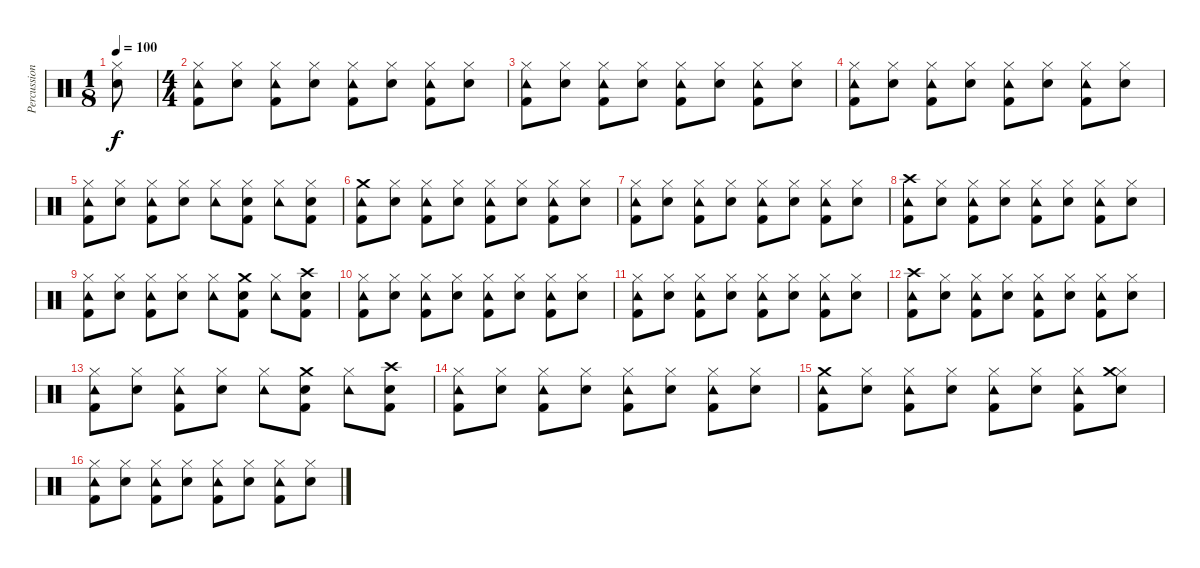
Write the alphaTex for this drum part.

\track ("Percussion" "Percussion") {instrument percussion}
\staff {score}
\articulation defaults
\ts (1 8)
\tempo 100
\clef neutral
\ks c
("Hi-Hat (closed)" "Electric Snare (hit)").8{dy f volume 16} |
\ts (4 4)
("Hi-Hat (closed)" "Tambourine (hit)" "Kick (hit) 2").8{volume 11} ("Hi-Hat (closed)" "Electric Snare (hit)").8 ("Hi-Hat (closed)" "Tambourine (hit)" "Kick (hit) 2").8 ("Hi-Hat (closed)" "Electric Snare (hit)").8 ("Hi-Hat (closed)" "Tambourine (hit)" "Kick (hit) 2").8 ("Hi-Hat (closed)" "Electric Snare (hit)").8 ("Hi-Hat (closed)" "Tambourine (hit)" "Kick (hit) 2").8 ("Hi-Hat (closed)" "Electric Snare (hit)").8 |
("Hi-Hat (closed)" "Tambourine (hit)" "Kick (hit) 2").8 ("Hi-Hat (closed)" "Electric Snare (hit)").8 ("Hi-Hat (closed)" "Tambourine (hit)" "Kick (hit) 2").8 ("Hi-Hat (closed)" "Electric Snare (hit)").8 ("Hi-Hat (closed)" "Tambourine (hit)" "Kick (hit) 2").8 ("Hi-Hat (closed)" "Electric Snare (hit)").8 ("Hi-Hat (closed)" "Tambourine (hit)" "Kick (hit) 2").8 ("Hi-Hat (closed)" "Electric Snare (hit)").8 |
("Hi-Hat (closed)" "Tambourine (hit)" "Kick (hit) 2").8 ("Hi-Hat (closed)" "Electric Snare (hit)").8 ("Hi-Hat (closed)" "Tambourine (hit)" "Kick (hit) 2").8 ("Hi-Hat (closed)" "Electric Snare (hit)").8 ("Hi-Hat (closed)" "Tambourine (hit)" "Kick (hit) 2").8 ("Hi-Hat (closed)" "Electric Snare (hit)").8 ("Hi-Hat (closed)" "Tambourine (hit)" "Kick (hit) 2").8 ("Hi-Hat (closed)" "Electric Snare (hit)").8 |
("Hi-Hat (closed)" "Tambourine (hit)" "Kick (hit) 2").8 ("Hi-Hat (closed)" "Electric Snare (hit)").8 ("Hi-Hat (closed)" "Tambourine (hit)" "Kick (hit) 2").8 ("Hi-Hat (closed)" "Electric Snare (hit)").8 ("Hi-Hat (closed)" "Tambourine (hit)").8 ("Hi-Hat (closed)" "Electric Snare (hit)" "Kick (hit) 2").8 ("Hi-Hat (closed)" "Tambourine (hit)").8 ("Hi-Hat (closed)" "Electric Snare (hit)" "Kick (hit) 2").8 |
("Tambourine (hit)" "Crash medium (hit)" "Kick (hit) 2").8{volume 13} ("Hi-Hat (closed)" "Electric Snare (hit)").8 ("Hi-Hat (closed)" "Tambourine (hit)" "Kick (hit) 2").8 ("Hi-Hat (closed)" "Electric Snare (hit)").8 ("Hi-Hat (closed)" "Tambourine (hit)" "Kick (hit) 2").8 ("Hi-Hat (closed)" "Electric Snare (hit)").8 ("Hi-Hat (closed)" "Tambourine (hit)" "Kick (hit) 2").8 ("Hi-Hat (closed)" "Electric Snare (hit)").8 |
("Hi-Hat (closed)" "Tambourine (hit)" "Kick (hit) 2").8 ("Hi-Hat (closed)" "Electric Snare (hit)").8 ("Hi-Hat (closed)" "Tambourine (hit)" "Kick (hit) 2").8 ("Hi-Hat (closed)" "Electric Snare (hit)").8 ("Hi-Hat (closed)" "Tambourine (hit)" "Kick (hit) 2").8 ("Hi-Hat (closed)" "Electric Snare (hit)").8 ("Hi-Hat (closed)" "Tambourine (hit)" "Kick (hit) 2").8 ("Hi-Hat (closed)" "Electric Snare (hit)").8 |
("Tambourine (hit)" "Crash high (hit)" "Kick (hit) 2").8 ("Hi-Hat (closed)" "Electric Snare (hit)").8 ("Hi-Hat (closed)" "Tambourine (hit)" "Kick (hit) 2").8 ("Hi-Hat (closed)" "Electric Snare (hit)").8 ("Hi-Hat (closed)" "Tambourine (hit)" "Kick (hit) 2").8 ("Hi-Hat (closed)" "Electric Snare (hit)").8 ("Hi-Hat (closed)" "Tambourine (hit)" "Kick (hit) 2").8 ("Hi-Hat (closed)" "Electric Snare (hit)").8 |
("Hi-Hat (closed)" "Tambourine (hit)" "Kick (hit) 2").8 ("Hi-Hat (closed)" "Electric Snare (hit)").8 ("Hi-Hat (closed)" "Tambourine (hit)" "Kick (hit) 2").8 ("Hi-Hat (closed)" "Electric Snare (hit)").8 ("Hi-Hat (closed)" "Tambourine (hit)").8 ("Electric Snare (hit)" "Crash medium (hit)" "Kick (hit) 2").8 ("Hi-Hat (closed)" "Tambourine (hit)").8 ("Electric Snare (hit)" "Crash high (hit)" "Kick (hit) 2").8 |
("Hi-Hat (closed)" "Tambourine (hit)" "Kick (hit) 2").8 ("Hi-Hat (closed)" "Electric Snare (hit)").8 ("Hi-Hat (closed)" "Tambourine (hit)" "Kick (hit) 2").8 ("Hi-Hat (closed)" "Electric Snare (hit)").8 ("Hi-Hat (closed)" "Tambourine (hit)" "Kick (hit) 2").8 ("Hi-Hat (closed)" "Electric Snare (hit)").8 ("Hi-Hat (closed)" "Tambourine (hit)" "Kick (hit) 2").8 ("Hi-Hat (closed)" "Electric Snare (hit)").8 |
("Hi-Hat (closed)" "Tambourine (hit)" "Kick (hit) 2").8 ("Hi-Hat (closed)" "Electric Snare (hit)").8 ("Hi-Hat (closed)" "Tambourine (hit)" "Kick (hit) 2").8 ("Hi-Hat (closed)" "Electric Snare (hit)").8 ("Hi-Hat (closed)" "Tambourine (hit)" "Kick (hit) 2").8 ("Hi-Hat (closed)" "Electric Snare (hit)").8 ("Hi-Hat (closed)" "Tambourine (hit)" "Kick (hit) 2").8 ("Hi-Hat (closed)" "Electric Snare (hit)").8 |
("Tambourine (hit)" "Crash high (hit)" "Kick (hit) 2").8 ("Hi-Hat (closed)" "Electric Snare (hit)").8 ("Hi-Hat (closed)" "Tambourine (hit)" "Kick (hit) 2").8 ("Hi-Hat (closed)" "Electric Snare (hit)").8 ("Hi-Hat (closed)" "Tambourine (hit)" "Kick (hit) 2").8 ("Hi-Hat (closed)" "Electric Snare (hit)").8 ("Hi-Hat (closed)" "Tambourine (hit)" "Kick (hit) 2").8 ("Hi-Hat (closed)" "Electric Snare (hit)").8 |
("Hi-Hat (closed)" "Tambourine (hit)" "Kick (hit) 2").8 ("Hi-Hat (closed)" "Electric Snare (hit)").8 ("Hi-Hat (closed)" "Tambourine (hit)" "Kick (hit) 2").8 ("Hi-Hat (closed)" "Electric Snare (hit)").8 ("Hi-Hat (closed)" "Tambourine (hit)").8 ("Electric Snare (hit)" "Crash medium (hit)" "Kick (hit) 2").8 ("Hi-Hat (closed)" "Tambourine (hit)").8 ("Electric Snare (hit)" "Crash high (hit)" "Kick (hit) 2").8 |
("Hi-Hat (closed)" "Tambourine (hit)" "Kick (hit) 2").8 ("Hi-Hat (closed)" "Electric Snare (hit)").8 ("Hi-Hat (closed)" "Tambourine (hit)" "Kick (hit) 2").8 ("Hi-Hat (closed)" "Electric Snare (hit)").8 ("Hi-Hat (closed)" "Tambourine (hit)" "Kick (hit) 2").8 ("Hi-Hat (closed)" "Electric Snare (hit)").8 ("Hi-Hat (closed)" "Tambourine (hit)" "Kick (hit) 2").8 ("Hi-Hat (closed)" "Electric Snare (hit)").8 |
("Tambourine (hit)" "Crash medium (hit)" "Kick (hit) 2").8 ("Hi-Hat (closed)" "Electric Snare (hit)").8 ("Hi-Hat (closed)" "Tambourine (hit)" "Kick (hit) 2").8 ("Hi-Hat (closed)" "Electric Snare (hit)").8 ("Hi-Hat (closed)" "Tambourine (hit)" "Kick (hit) 2").8 ("Hi-Hat (closed)" "Electric Snare (hit)").8 ("Hi-Hat (closed)" "Tambourine (hit)" "Kick (hit) 2").8 ("Hi-Hat (closed)" "Electric Snare (hit)" "Crash medium (hit)").8 |
("Hi-Hat (closed)" "Tambourine (hit)" "Kick (hit) 2").8 ("Hi-Hat (closed)" "Electric Snare (hit)").8 ("Hi-Hat (closed)" "Tambourine (hit)" "Kick (hit) 2").8 ("Hi-Hat (closed)" "Electric Snare (hit)").8 ("Hi-Hat (closed)" "Tambourine (hit)" "Kick (hit) 2").8 ("Hi-Hat (closed)" "Electric Snare (hit)").8 ("Hi-Hat (closed)" "Tambourine (hit)" "Kick (hit) 2").8 ("Hi-Hat (closed)" "Electric Snare (hit)").8
